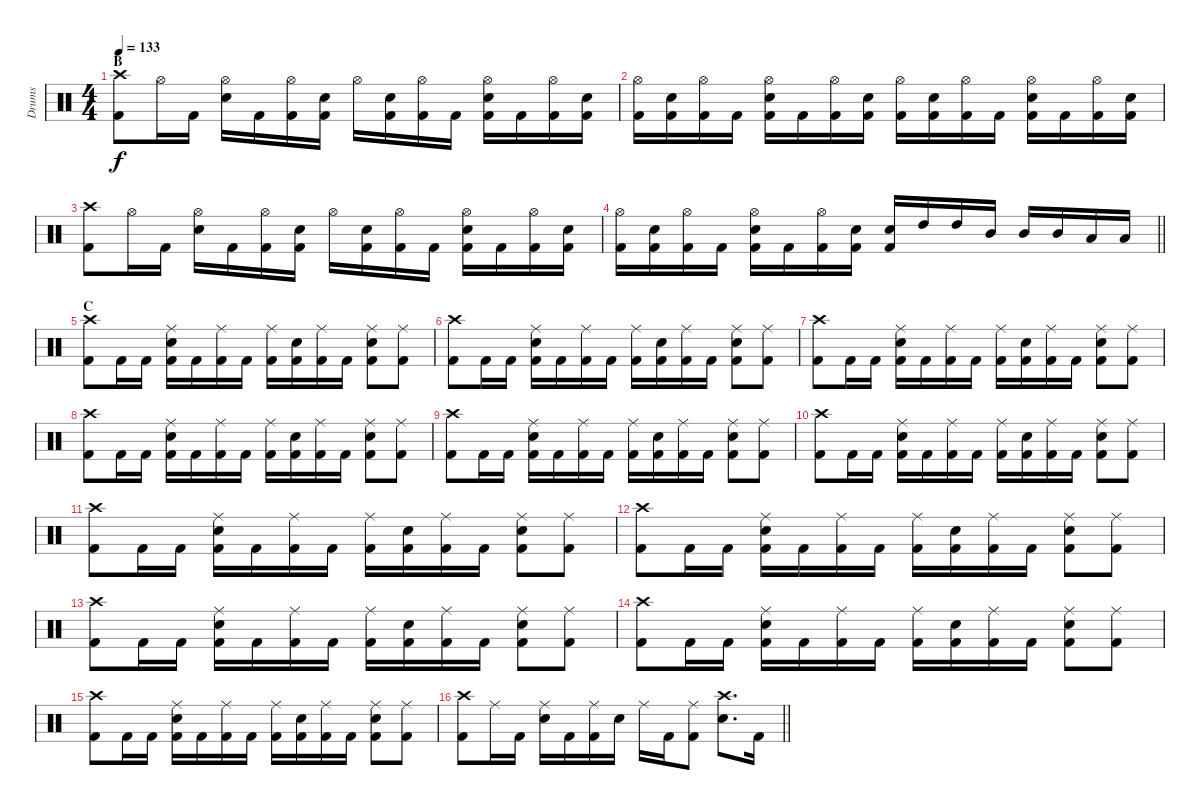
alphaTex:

\track ("Drums" "Drums") {instrument percussion}
\staff {score}
\articulation defaults
\ts (4 4)
\section ("" "B")
\tempo 133
\clef neutral
\ks c
("Crash high (hit)" "Kick (hit) 2").8{dy f} "Hi-Hat (open)".16 "Kick (hit) 2".16 ("Hi-Hat (open)" "Electric Snare (hit)").16 "Kick (hit) 2".16 ("Hi-Hat (open)" "Kick (hit) 2").16 ("Electric Snare (hit)" "Kick (hit) 2").16 "Hi-Hat (open)".16 ("Electric Snare (hit)" "Kick (hit) 2").16 ("Hi-Hat (open)" "Kick (hit) 2").16 "Kick (hit) 2".16 ("Hi-Hat (open)" "Electric Snare (hit)" "Kick (hit) 2").16 "Kick (hit) 2".16 ("Hi-Hat (open)" "Kick (hit) 2").16 ("Electric Snare (hit)" "Kick (hit) 2").16 |
("Hi-Hat (open)" "Kick (hit) 2").16 ("Electric Snare (hit)" "Kick (hit) 2").16 ("Hi-Hat (open)" "Kick (hit) 2").16 "Kick (hit) 2".16 ("Hi-Hat (open)" "Electric Snare (hit)" "Kick (hit) 2").16 "Kick (hit) 2".16 ("Hi-Hat (open)" "Kick (hit) 2").16 ("Electric Snare (hit)" "Kick (hit) 2").16 ("Hi-Hat (open)" "Kick (hit) 2").16 ("Electric Snare (hit)" "Kick (hit) 2").16 ("Hi-Hat (open)" "Kick (hit) 2").16 "Kick (hit) 2".16 ("Hi-Hat (open)" "Electric Snare (hit)" "Kick (hit) 2").16 "Kick (hit) 2".16 ("Hi-Hat (open)" "Kick (hit) 2").16 ("Electric Snare (hit)" "Kick (hit) 2").16 |
("Crash high (hit)" "Kick (hit) 2").8 "Hi-Hat (open)".16 "Kick (hit) 2".16 ("Hi-Hat (open)" "Electric Snare (hit)").16 "Kick (hit) 2".16 ("Hi-Hat (open)" "Kick (hit) 2").16 ("Electric Snare (hit)" "Kick (hit) 2").16 "Hi-Hat (open)".16 ("Electric Snare (hit)" "Kick (hit) 2").16 ("Hi-Hat (open)" "Kick (hit) 2").16 "Kick (hit) 2".16 ("Hi-Hat (open)" "Electric Snare (hit)" "Kick (hit) 2").16 "Kick (hit) 2".16 ("Hi-Hat (open)" "Kick (hit) 2").16 ("Electric Snare (hit)" "Kick (hit) 2").16 |
\barLineRight lightlight
("Hi-Hat (open)" "Kick (hit) 2").16 ("Electric Snare (hit)" "Kick (hit) 2").16 ("Hi-Hat (open)" "Kick (hit) 2").16 "Kick (hit) 2".16 ("Hi-Hat (open)" "Electric Snare (hit)" "Kick (hit) 2").16 "Kick (hit) 2".16 ("Hi-Hat (open)" "Kick (hit) 2").16 ("Electric Snare (hit)" "Kick (hit) 2").16 ("Electric Snare (hit)" "Kick (hit) 2").16 "High Tom (hit)".16 "High Tom (hit)".16 "Mid Tom (hit)".16 "Mid Tom (hit)".16 "Mid Tom (hit)".16 "Low Tom (hit)".16 "Low Tom (hit)".16 |
\section ("" "C")
("Crash high (hit)" "Kick (hit) 2").8 "Kick (hit) 2".16 "Kick (hit) 2".16 ("Ride (middle)" "Electric Snare (hit)" "Kick (hit) 2").16 "Kick (hit) 2".16 ("Ride (middle)" "Kick (hit) 2").16 "Kick (hit) 2".16 ("Ride (middle)" "Kick (hit) 2").16 ("Electric Snare (hit)" "Kick (hit) 2").16 ("Ride (middle)" "Kick (hit) 2").16 "Kick (hit) 2".16 ("Ride (middle)" "Electric Snare (hit)" "Kick (hit) 2").8 ("Ride (middle)" "Kick (hit) 2").8 |
("Crash high (hit)" "Kick (hit) 2").8 "Kick (hit) 2".16 "Kick (hit) 2".16 ("Ride (middle)" "Electric Snare (hit)" "Kick (hit) 2").16 "Kick (hit) 2".16 ("Ride (middle)" "Kick (hit) 2").16 "Kick (hit) 2".16 ("Ride (middle)" "Kick (hit) 2").16 ("Electric Snare (hit)" "Kick (hit) 2").16 ("Ride (middle)" "Kick (hit) 2").16 "Kick (hit) 2".16 ("Ride (middle)" "Electric Snare (hit)" "Kick (hit) 2").8 ("Ride (middle)" "Kick (hit) 2").8 |
("Crash high (hit)" "Kick (hit) 2").8 "Kick (hit) 2".16 "Kick (hit) 2".16 ("Ride (middle)" "Electric Snare (hit)" "Kick (hit) 2").16 "Kick (hit) 2".16 ("Ride (middle)" "Kick (hit) 2").16 "Kick (hit) 2".16 ("Ride (middle)" "Kick (hit) 2").16 ("Electric Snare (hit)" "Kick (hit) 2").16 ("Ride (middle)" "Kick (hit) 2").16 "Kick (hit) 2".16 ("Ride (middle)" "Electric Snare (hit)" "Kick (hit) 2").8 ("Ride (middle)" "Kick (hit) 2").8 |
("Crash high (hit)" "Kick (hit) 2").8 "Kick (hit) 2".16 "Kick (hit) 2".16 ("Ride (middle)" "Electric Snare (hit)" "Kick (hit) 2").16 "Kick (hit) 2".16 ("Ride (middle)" "Kick (hit) 2").16 "Kick (hit) 2".16 ("Ride (middle)" "Kick (hit) 2").16 ("Electric Snare (hit)" "Kick (hit) 2").16 ("Ride (middle)" "Kick (hit) 2").16 "Kick (hit) 2".16 ("Ride (middle)" "Electric Snare (hit)" "Kick (hit) 2").8 ("Ride (middle)" "Kick (hit) 2").8 |
("Crash high (hit)" "Kick (hit) 2").8 "Kick (hit) 2".16 "Kick (hit) 2".16 ("Ride (middle)" "Electric Snare (hit)" "Kick (hit) 2").16 "Kick (hit) 2".16 ("Ride (middle)" "Kick (hit) 2").16 "Kick (hit) 2".16 ("Ride (middle)" "Kick (hit) 2").16 ("Electric Snare (hit)" "Kick (hit) 2").16 ("Ride (middle)" "Kick (hit) 2").16 "Kick (hit) 2".16 ("Ride (middle)" "Electric Snare (hit)" "Kick (hit) 2").8 ("Ride (middle)" "Kick (hit) 2").8 |
("Crash high (hit)" "Kick (hit) 2").8 "Kick (hit) 2".16 "Kick (hit) 2".16 ("Ride (middle)" "Electric Snare (hit)" "Kick (hit) 2").16 "Kick (hit) 2".16 ("Ride (middle)" "Kick (hit) 2").16 "Kick (hit) 2".16 ("Ride (middle)" "Kick (hit) 2").16 ("Electric Snare (hit)" "Kick (hit) 2").16 ("Ride (middle)" "Kick (hit) 2").16 "Kick (hit) 2".16 ("Ride (middle)" "Electric Snare (hit)" "Kick (hit) 2").8 ("Ride (middle)" "Kick (hit) 2").8 |
("Crash high (hit)" "Kick (hit) 2").8 "Kick (hit) 2".16 "Kick (hit) 2".16 ("Ride (middle)" "Electric Snare (hit)" "Kick (hit) 2").16 "Kick (hit) 2".16 ("Ride (middle)" "Kick (hit) 2").16 "Kick (hit) 2".16 ("Ride (middle)" "Kick (hit) 2").16 ("Electric Snare (hit)" "Kick (hit) 2").16 ("Ride (middle)" "Kick (hit) 2").16 "Kick (hit) 2".16 ("Ride (middle)" "Electric Snare (hit)" "Kick (hit) 2").8 ("Ride (middle)" "Kick (hit) 2").8 |
("Crash high (hit)" "Kick (hit) 2").8 "Kick (hit) 2".16 "Kick (hit) 2".16 ("Ride (middle)" "Electric Snare (hit)" "Kick (hit) 2").16 "Kick (hit) 2".16 ("Ride (middle)" "Kick (hit) 2").16 "Kick (hit) 2".16 ("Ride (middle)" "Kick (hit) 2").16 ("Electric Snare (hit)" "Kick (hit) 2").16 ("Ride (middle)" "Kick (hit) 2").16 "Kick (hit) 2".16 ("Ride (middle)" "Electric Snare (hit)" "Kick (hit) 2").8 ("Ride (middle)" "Kick (hit) 2").8 |
("Crash high (hit)" "Kick (hit) 2").8 "Kick (hit) 2".16 "Kick (hit) 2".16 ("Ride (middle)" "Electric Snare (hit)" "Kick (hit) 2").16 "Kick (hit) 2".16 ("Ride (middle)" "Kick (hit) 2").16 "Kick (hit) 2".16 ("Ride (middle)" "Kick (hit) 2").16 ("Electric Snare (hit)" "Kick (hit) 2").16 ("Ride (middle)" "Kick (hit) 2").16 "Kick (hit) 2".16 ("Ride (middle)" "Electric Snare (hit)" "Kick (hit) 2").8 ("Ride (middle)" "Kick (hit) 2").8 |
("Crash high (hit)" "Kick (hit) 2").8 "Kick (hit) 2".16 "Kick (hit) 2".16 ("Ride (middle)" "Electric Snare (hit)" "Kick (hit) 2").16 "Kick (hit) 2".16 ("Ride (middle)" "Kick (hit) 2").16 "Kick (hit) 2".16 ("Ride (middle)" "Kick (hit) 2").16 ("Electric Snare (hit)" "Kick (hit) 2").16 ("Ride (middle)" "Kick (hit) 2").16 "Kick (hit) 2".16 ("Ride (middle)" "Electric Snare (hit)" "Kick (hit) 2").8 ("Ride (middle)" "Kick (hit) 2").8 |
("Crash high (hit)" "Kick (hit) 2").8 "Kick (hit) 2".16 "Kick (hit) 2".16 ("Ride (middle)" "Electric Snare (hit)" "Kick (hit) 2").16 "Kick (hit) 2".16 ("Ride (middle)" "Kick (hit) 2").16 "Kick (hit) 2".16 ("Ride (middle)" "Kick (hit) 2").16 ("Electric Snare (hit)" "Kick (hit) 2").16 ("Ride (middle)" "Kick (hit) 2").16 "Kick (hit) 2".16 ("Ride (middle)" "Electric Snare (hit)" "Kick (hit) 2").8 ("Ride (middle)" "Kick (hit) 2").8 |
\barLineRight lightlight
("Crash high (hit)" "Kick (hit) 2").8 "Ride (middle)".16 "Kick (hit) 2".16 ("Ride (middle)" "Electric Snare (hit)").16 "Kick (hit) 2".16 ("Ride (middle)" "Kick (hit) 2").16 "Electric Snare (hit)".16 "Ride (middle)".16 "Kick (hit) 2".16 ("Ride (middle)" "Kick (hit) 2").8 ("Crash high (hit)" "Electric Snare (hit)").8{d} "Kick (hit) 2".16
